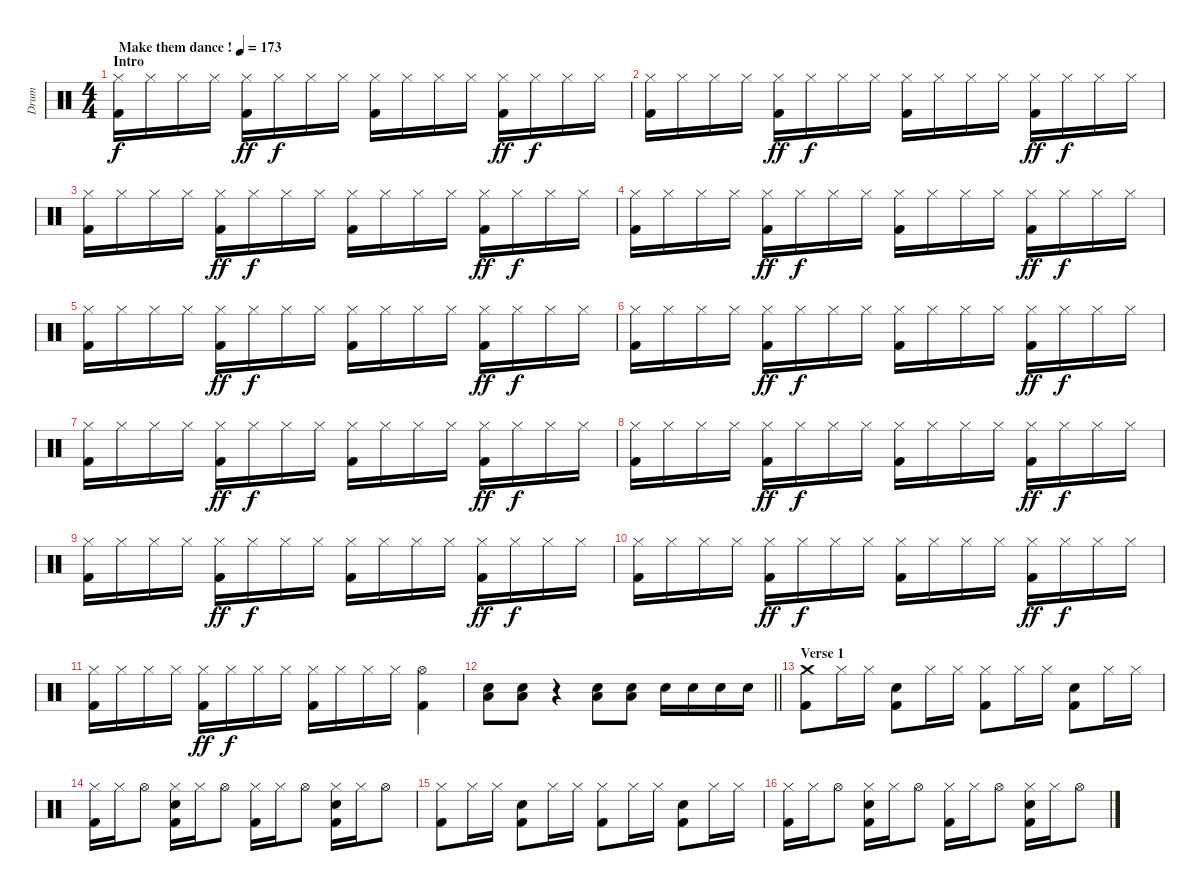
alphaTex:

\track ("Drum" "Drum") {instrument percussion}
\staff {score}
\articulation defaults
\ts (4 4)
\section ("" "Intro")
\tempo (173 "Make them dance !")
\clef neutral
\ks c
("Kick (hit) 2" "Hi-Hat (closed)").16{dy f} "Hi-Hat (closed)".16 "Hi-Hat (closed)".16 "Hi-Hat (closed)".16 ("Kick (hit) 2" "Hi-Hat (closed)").16{dy ff} "Hi-Hat (closed)".16{dy f} "Hi-Hat (closed)".16 "Hi-Hat (closed)".16 ("Kick (hit) 2" "Hi-Hat (closed)").16 "Hi-Hat (closed)".16 "Hi-Hat (closed)".16 "Hi-Hat (closed)".16 ("Kick (hit) 2" "Hi-Hat (closed)").16{dy ff} "Hi-Hat (closed)".16{dy f} "Hi-Hat (closed)".16 "Hi-Hat (closed)".16 |
("Kick (hit) 2" "Hi-Hat (closed)").16 "Hi-Hat (closed)".16 "Hi-Hat (closed)".16 "Hi-Hat (closed)".16 ("Kick (hit) 2" "Hi-Hat (closed)").16{dy ff} "Hi-Hat (closed)".16{dy f} "Hi-Hat (closed)".16 "Hi-Hat (closed)".16 ("Kick (hit) 2" "Hi-Hat (closed)").16 "Hi-Hat (closed)".16 "Hi-Hat (closed)".16 "Hi-Hat (closed)".16 ("Kick (hit) 2" "Hi-Hat (closed)").16{dy ff} "Hi-Hat (closed)".16{dy f} "Hi-Hat (closed)".16 "Hi-Hat (closed)".16 |
("Kick (hit) 2" "Hi-Hat (closed)").16 "Hi-Hat (closed)".16 "Hi-Hat (closed)".16 "Hi-Hat (closed)".16 ("Kick (hit) 2" "Hi-Hat (closed)").16{dy ff} "Hi-Hat (closed)".16{dy f} "Hi-Hat (closed)".16 "Hi-Hat (closed)".16 ("Kick (hit) 2" "Hi-Hat (closed)").16 "Hi-Hat (closed)".16 "Hi-Hat (closed)".16 "Hi-Hat (closed)".16 ("Kick (hit) 2" "Hi-Hat (closed)").16{dy ff} "Hi-Hat (closed)".16{dy f} "Hi-Hat (closed)".16 "Hi-Hat (closed)".16 |
("Kick (hit) 2" "Hi-Hat (closed)").16 "Hi-Hat (closed)".16 "Hi-Hat (closed)".16 "Hi-Hat (closed)".16 ("Kick (hit) 2" "Hi-Hat (closed)").16{dy ff} "Hi-Hat (closed)".16{dy f} "Hi-Hat (closed)".16 "Hi-Hat (closed)".16 ("Kick (hit) 2" "Hi-Hat (closed)").16 "Hi-Hat (closed)".16 "Hi-Hat (closed)".16 "Hi-Hat (closed)".16 ("Kick (hit) 2" "Hi-Hat (closed)").16{dy ff} "Hi-Hat (closed)".16{dy f} "Hi-Hat (closed)".16 "Hi-Hat (closed)".16 |
("Kick (hit) 2" "Hi-Hat (closed)").16 "Hi-Hat (closed)".16 "Hi-Hat (closed)".16 "Hi-Hat (closed)".16 ("Kick (hit) 2" "Hi-Hat (closed)").16{dy ff} "Hi-Hat (closed)".16{dy f} "Hi-Hat (closed)".16 "Hi-Hat (closed)".16 ("Kick (hit) 2" "Hi-Hat (closed)").16 "Hi-Hat (closed)".16 "Hi-Hat (closed)".16 "Hi-Hat (closed)".16 ("Kick (hit) 2" "Hi-Hat (closed)").16{dy ff} "Hi-Hat (closed)".16{dy f} "Hi-Hat (closed)".16 "Hi-Hat (closed)".16 |
("Kick (hit) 2" "Hi-Hat (closed)").16 "Hi-Hat (closed)".16 "Hi-Hat (closed)".16 "Hi-Hat (closed)".16 ("Kick (hit) 2" "Hi-Hat (closed)").16{dy ff} "Hi-Hat (closed)".16{dy f} "Hi-Hat (closed)".16 "Hi-Hat (closed)".16 ("Kick (hit) 2" "Hi-Hat (closed)").16 "Hi-Hat (closed)".16 "Hi-Hat (closed)".16 "Hi-Hat (closed)".16 ("Kick (hit) 2" "Hi-Hat (closed)").16{dy ff} "Hi-Hat (closed)".16{dy f} "Hi-Hat (closed)".16 "Hi-Hat (closed)".16 |
("Kick (hit) 2" "Hi-Hat (closed)").16 "Hi-Hat (closed)".16 "Hi-Hat (closed)".16 "Hi-Hat (closed)".16 ("Kick (hit) 2" "Hi-Hat (closed)").16{dy ff} "Hi-Hat (closed)".16{dy f} "Hi-Hat (closed)".16 "Hi-Hat (closed)".16 ("Kick (hit) 2" "Hi-Hat (closed)").16 "Hi-Hat (closed)".16 "Hi-Hat (closed)".16 "Hi-Hat (closed)".16 ("Kick (hit) 2" "Hi-Hat (closed)").16{dy ff} "Hi-Hat (closed)".16{dy f} "Hi-Hat (closed)".16 "Hi-Hat (closed)".16 |
("Kick (hit) 2" "Hi-Hat (closed)").16 "Hi-Hat (closed)".16 "Hi-Hat (closed)".16 "Hi-Hat (closed)".16 ("Kick (hit) 2" "Hi-Hat (closed)").16{dy ff} "Hi-Hat (closed)".16{dy f} "Hi-Hat (closed)".16 "Hi-Hat (closed)".16 ("Kick (hit) 2" "Hi-Hat (closed)").16 "Hi-Hat (closed)".16 "Hi-Hat (closed)".16 "Hi-Hat (closed)".16 ("Kick (hit) 2" "Hi-Hat (closed)").16{dy ff} "Hi-Hat (closed)".16{dy f} "Hi-Hat (closed)".16 "Hi-Hat (closed)".16 |
("Kick (hit) 2" "Hi-Hat (closed)").16 "Hi-Hat (closed)".16 "Hi-Hat (closed)".16 "Hi-Hat (closed)".16 ("Kick (hit) 2" "Hi-Hat (closed)").16{dy ff} "Hi-Hat (closed)".16{dy f} "Hi-Hat (closed)".16 "Hi-Hat (closed)".16 ("Kick (hit) 2" "Hi-Hat (closed)").16 "Hi-Hat (closed)".16 "Hi-Hat (closed)".16 "Hi-Hat (closed)".16 ("Kick (hit) 2" "Hi-Hat (closed)").16{dy ff} "Hi-Hat (closed)".16{dy f} "Hi-Hat (closed)".16 "Hi-Hat (closed)".16 |
("Kick (hit) 2" "Hi-Hat (closed)").16 "Hi-Hat (closed)".16 "Hi-Hat (closed)".16 "Hi-Hat (closed)".16 ("Kick (hit) 2" "Hi-Hat (closed)").16{dy ff} "Hi-Hat (closed)".16{dy f} "Hi-Hat (closed)".16 "Hi-Hat (closed)".16 ("Kick (hit) 2" "Hi-Hat (closed)").16 "Hi-Hat (closed)".16 "Hi-Hat (closed)".16 "Hi-Hat (closed)".16 ("Kick (hit) 2" "Hi-Hat (closed)").16{dy ff} "Hi-Hat (closed)".16{dy f} "Hi-Hat (closed)".16 "Hi-Hat (closed)".16 |
("Kick (hit) 2" "Hi-Hat (closed)").16 "Hi-Hat (closed)".16 "Hi-Hat (closed)".16 "Hi-Hat (closed)".16 ("Kick (hit) 2" "Hi-Hat (closed)").16{dy ff} "Hi-Hat (closed)".16{dy f} "Hi-Hat (closed)".16 "Hi-Hat (closed)".16 ("Kick (hit) 2" "Hi-Hat (closed)").16 "Hi-Hat (closed)".16 "Hi-Hat (closed)".16 "Hi-Hat (closed)".16 ("Kick (hit) 2" "Hi-Hat (open)").4 |
\barLineRight lightlight
("Electric Snare (hit)" "Low Tom (hit)").8 ("Electric Snare (hit)" "Low Tom (hit)").8 r.4 ("Electric Snare (hit)" "Low Tom (hit)").8 ("Electric Snare (hit)" "Low Tom (hit)").8 "Electric Snare (hit)".16 "Electric Snare (hit)".16 "Electric Snare (hit)".16 "Electric Snare (hit)".16 |
\section ("" "Verse 1")
("Crash medium (hit)" "Kick (hit) 2").8 "Hi-Hat (closed)".16 "Hi-Hat (closed)".16 ("Kick (hit) 2" "Snare (hit) 2").8 "Hi-Hat (closed)".16 "Hi-Hat (closed)".16 ("Hi-Hat (closed)" "Kick (hit) 2").8 "Hi-Hat (closed)".16 "Hi-Hat (closed)".16 ("Kick (hit) 2" "Snare (hit) 2").8 "Hi-Hat (closed)".16 "Hi-Hat (closed)".16 |
("Hi-Hat (closed)" "Kick (hit) 2").16 "Hi-Hat (closed)".16 "Hi-Hat (open)".8 ("Hi-Hat (closed)" "Kick (hit) 2" "Snare (hit) 2").16 "Hi-Hat (closed)".16 "Hi-Hat (open)".8 ("Hi-Hat (closed)" "Kick (hit) 2").16 "Hi-Hat (closed)".16 "Hi-Hat (open)".8 ("Hi-Hat (closed)" "Kick (hit) 2" "Snare (hit) 2").16 "Hi-Hat (closed)".16 "Hi-Hat (open)".8 |
("Hi-Hat (closed)" "Kick (hit) 2").8 "Hi-Hat (closed)".16 "Hi-Hat (closed)".16 ("Kick (hit) 2" "Snare (hit) 2").8 "Hi-Hat (closed)".16 "Hi-Hat (closed)".16 ("Hi-Hat (closed)" "Kick (hit) 2").8 "Hi-Hat (closed)".16 "Hi-Hat (closed)".16 ("Kick (hit) 2" "Snare (hit) 2").8 "Hi-Hat (closed)".16 "Hi-Hat (closed)".16 |
("Hi-Hat (closed)" "Kick (hit) 2").16 "Hi-Hat (closed)".16 "Hi-Hat (open)".8 ("Hi-Hat (closed)" "Kick (hit) 2" "Snare (hit) 2").16 "Hi-Hat (closed)".16 "Hi-Hat (open)".8 ("Hi-Hat (closed)" "Kick (hit) 2").16 "Hi-Hat (closed)".16 "Hi-Hat (open)".8 ("Hi-Hat (closed)" "Kick (hit) 2" "Snare (hit) 2").16 "Hi-Hat (closed)".16 "Hi-Hat (open)".8
